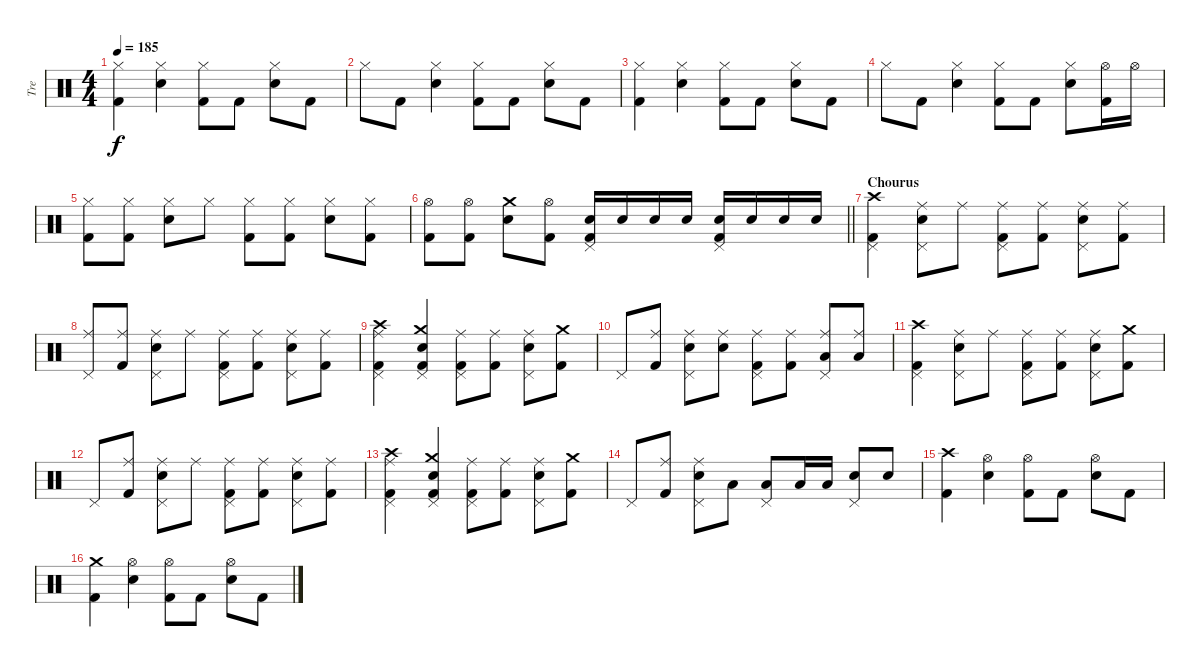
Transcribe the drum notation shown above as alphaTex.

\track ("Tre" "Tre") {instrument percussion}
\staff {score}
\articulation defaults
\ts (4 4)
\tempo 185
\clef neutral
\ks c
("Hi-Hat (closed)" "Kick (hit) 2").4{dy f} ("Hi-Hat (closed)" "Snare (hit) 2").4 ("Hi-Hat (closed)" "Kick (hit) 2").8 "Kick (hit) 2".8 ("Hi-Hat (closed)" "Snare (hit) 2").8 "Kick (hit) 2".8 |
"Hi-Hat (closed)".8 "Kick (hit) 2".8 ("Hi-Hat (closed)" "Snare (hit) 2").4 ("Hi-Hat (closed)" "Kick (hit) 2").8 "Kick (hit) 2".8 ("Hi-Hat (closed)" "Snare (hit) 2").8 "Kick (hit) 2".8 |
("Hi-Hat (closed)" "Kick (hit) 2").4 ("Hi-Hat (closed)" "Snare (hit) 2").4 ("Hi-Hat (closed)" "Kick (hit) 2").8 "Kick (hit) 2".8 ("Hi-Hat (closed)" "Snare (hit) 2").8 "Kick (hit) 2".8 |
"Hi-Hat (closed)".8 "Kick (hit) 2".8 ("Hi-Hat (closed)" "Snare (hit) 2").4 ("Hi-Hat (closed)" "Kick (hit) 2").8 "Kick (hit) 2".8 ("Hi-Hat (closed)" "Snare (hit) 2").8 ("Hi-Hat (open)" "Kick (hit) 2").16 "Hi-Hat (open)".16 |
("Hi-Hat (closed)" "Kick (hit) 2").8 ("Hi-Hat (closed)" "Kick (hit) 2").8 ("Hi-Hat (closed)" "Snare (hit) 2").8 "Hi-Hat (closed)".8 ("Hi-Hat (closed)" "Kick (hit) 2").8 ("Hi-Hat (closed)" "Kick (hit) 2").8 ("Hi-Hat (closed)" "Snare (hit) 2").8 ("Hi-Hat (closed)" "Kick (hit) 2").8 |
\barLineRight lightlight
("Hi-Hat (open)" "Kick (hit) 2").8 ("Hi-Hat (open)" "Kick (hit) 2").8 ("Crash medium (hit)" "Snare (hit) 2").8 ("Hi-Hat (open)" "Kick (hit) 2").8 ("Snare (hit) 2" "Pedal Hi-Hat (hit)" "Kick (hit) 2").16 "Snare (hit) 2".16 "Snare (hit) 2".16 "Snare (hit) 2".16 ("Snare (hit) 2" "Pedal Hi-Hat (hit)" "Kick (hit) 2").16 "Snare (hit) 2".16 "Snare (hit) 2".16 "Snare (hit) 2".16 |
\section ("" "Chourus")
("Crash high (hit)" "Pedal Hi-Hat (hit)" "Kick (hit) 2").4 ("Ride (middle)" "Snare (hit) 2" "Pedal Hi-Hat (hit)").8 "Ride (middle)".8 ("Ride (middle)" "Pedal Hi-Hat (hit)" "Kick (hit) 2").8 ("Ride (middle)" "Kick (hit) 2").8 ("Ride (middle)" "Snare (hit) 2" "Pedal Hi-Hat (hit)").8 ("Ride (middle)" "Kick (hit) 2").8 |
("Ride (middle)" "Pedal Hi-Hat (hit)").8 ("Ride (middle)" "Kick (hit) 2").8 ("Ride (middle)" "Snare (hit) 2" "Pedal Hi-Hat (hit)").8 "Ride (middle)".8 ("Ride (middle)" "Pedal Hi-Hat (hit)" "Kick (hit) 2").8 ("Ride (middle)" "Kick (hit) 2").8 ("Ride (middle)" "Snare (hit) 2" "Pedal Hi-Hat (hit)").8 ("Ride (middle)" "Kick (hit) 2").8 |
("Crash high (hit)" "Ride (middle)" "Pedal Hi-Hat (hit)" "Kick (hit) 2").4 ("Crash medium (hit)" "Snare (hit) 2" "Pedal Hi-Hat (hit)" "Kick (hit) 2").4 ("Ride (middle)" "Pedal Hi-Hat (hit)" "Kick (hit) 2").8 ("Ride (middle)" "Kick (hit) 2").8 ("Ride (middle)" "Snare (hit) 2" "Pedal Hi-Hat (hit)").8 ("Crash medium (hit)" "Kick (hit) 2").8 |
"Pedal Hi-Hat (hit)".8 ("Ride (middle)" "Kick (hit) 2").8 ("Ride (middle)" "Snare (hit) 2" "Pedal Hi-Hat (hit)").8 ("Ride (middle)" "Snare (hit) 2").8 ("Ride (middle)" "Pedal Hi-Hat (hit)" "Kick (hit) 2").8 ("Ride (middle)" "Kick (hit) 2").8 ("Ride (middle)" "Low Tom (hit)" "Pedal Hi-Hat (hit)").8 ("Ride (middle)" "Low Tom (hit)").8 |
("Crash high (hit)" "Pedal Hi-Hat (hit)" "Kick (hit) 2").4 ("Ride (middle)" "Snare (hit) 2" "Pedal Hi-Hat (hit)").8 "Ride (middle)".8 ("Ride (middle)" "Pedal Hi-Hat (hit)" "Kick (hit) 2").8 ("Ride (middle)" "Kick (hit) 2").8 ("Ride (middle)" "Snare (hit) 2" "Pedal Hi-Hat (hit)").8 ("Crash medium (hit)" "Kick (hit) 2").8 |
"Pedal Hi-Hat (hit)".8 ("Ride (middle)" "Kick (hit) 2").8 ("Ride (middle)" "Snare (hit) 2" "Pedal Hi-Hat (hit)").8 "Ride (middle)".8 ("Ride (middle)" "Pedal Hi-Hat (hit)" "Kick (hit) 2").8 ("Ride (middle)" "Kick (hit) 2").8 ("Ride (middle)" "Snare (hit) 2" "Pedal Hi-Hat (hit)").8 ("Ride (middle)" "Kick (hit) 2").8 |
("Crash high (hit)" "Ride (middle)" "Pedal Hi-Hat (hit)" "Kick (hit) 2").4 ("Crash medium (hit)" "Snare (hit) 2" "Pedal Hi-Hat (hit)" "Kick (hit) 2").4 ("Ride (middle)" "Pedal Hi-Hat (hit)" "Kick (hit) 2").8 ("Ride (middle)" "Kick (hit) 2").8 ("Ride (middle)" "Snare (hit) 2" "Pedal Hi-Hat (hit)").8 ("Crash medium (hit)" "Kick (hit) 2").8 |
"Pedal Hi-Hat (hit)".8 ("Ride (middle)" "Kick (hit) 2").8 ("Ride (middle)" "Snare (hit) 2" "Pedal Hi-Hat (hit)").8 "Low Tom (hit)".8 ("Low Tom (hit)" "Pedal Hi-Hat (hit)").8 "Low Floor Tom (hit)".16 "Low Floor Tom (hit)".16 ("Snare (hit) 2" "Pedal Hi-Hat (hit)").8 "Snare (hit) 2".8 |
("Crash high (hit)" "Kick (hit) 2").4 ("Hi-Hat (open)" "Snare (hit) 2").4 ("Hi-Hat (open)" "Kick (hit) 2").8 "Kick (hit) 2".8 ("Hi-Hat (open)" "Snare (hit) 2").8 "Kick (hit) 2".8 |
("Crash medium (hit)" "Kick (hit) 2").4 ("Hi-Hat (open)" "Snare (hit) 2").4 ("Hi-Hat (open)" "Kick (hit) 2").8 "Kick (hit) 2".8 ("Hi-Hat (open)" "Snare (hit) 2").8 "Kick (hit) 2".8
